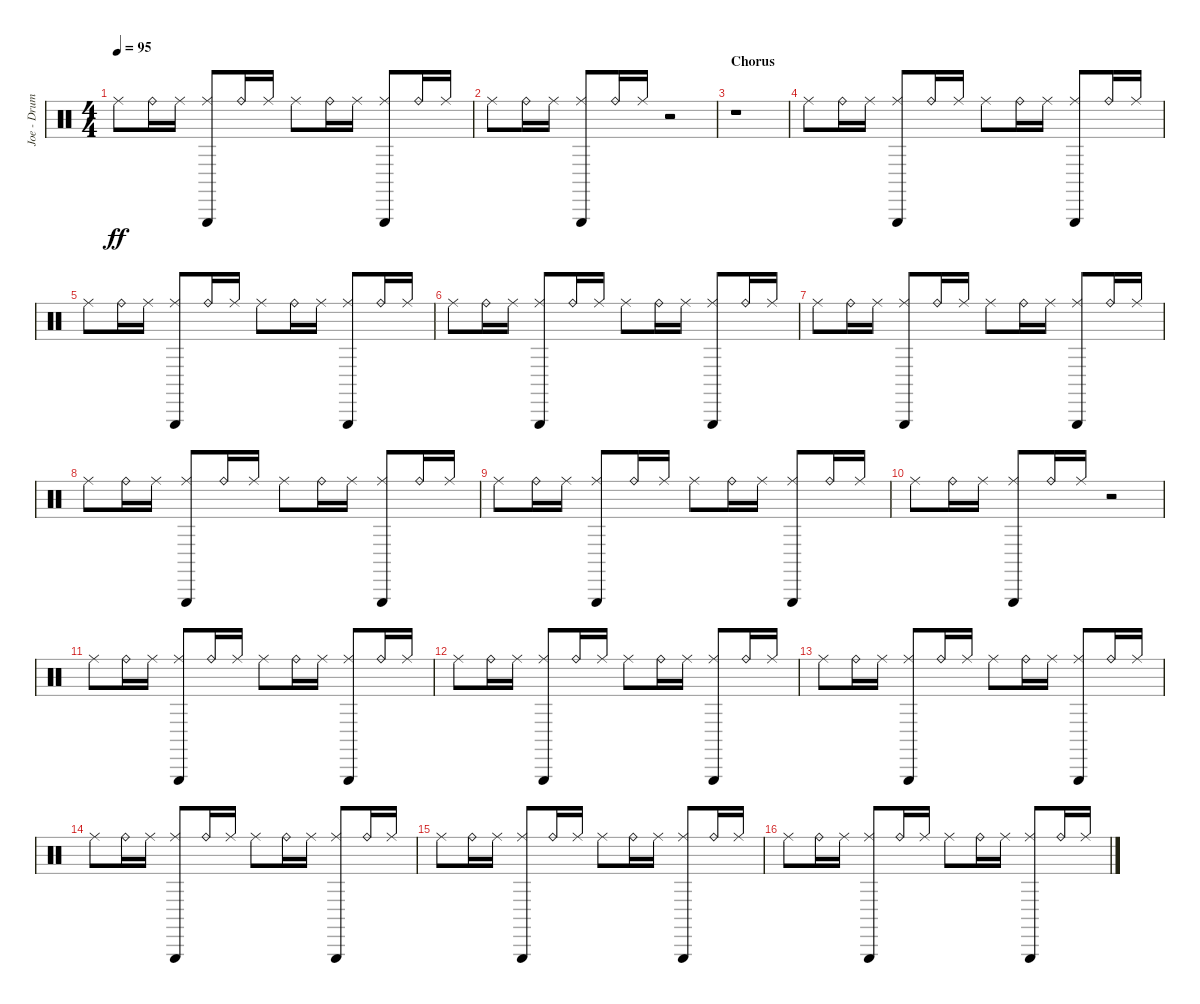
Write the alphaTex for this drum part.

\track ("Joe - Drums samples" "Joe - Drum") {instrument percussion}
\staff {score}
\articulation defaults
\ts (4 4)
\tempo 95
\clef neutral
\ks c "Ride (middle)".8{dy ff} "Ride (bell)".16 "Ride (middle)".16
("Triangle (hit)" "Ride (middle)").8 "Ride (bell)".16 "Ride (middle)".16 "Ride (middle)".8 "Ride (bell)".16 "Ride (middle)".16 ("Triangle (hit)" "Ride (middle)").8 "Ride (bell)".16 "Ride (middle)".16 |
"Ride (middle)".8 "Ride (bell)".16 "Ride (middle)".16 ("Triangle (hit)" "Ride (middle)").8 "Ride (bell)".16 "Ride (middle)".16 r.2 |
\section ("" "Chorus")
r.1 |
"Ride (middle)".8 "Ride (bell)".16 "Ride (middle)".16 ("Triangle (hit)" "Ride (middle)").8 "Ride (bell)".16 "Ride (middle)".16 "Ride (middle)".8 "Ride (bell)".16 "Ride (middle)".16 ("Triangle (hit)" "Ride (middle)").8 "Ride (bell)".16 "Ride (middle)".16 |
"Ride (middle)".8 "Ride (bell)".16 "Ride (middle)".16 ("Triangle (hit)" "Ride (middle)").8 "Ride (bell)".16 "Ride (middle)".16 "Ride (middle)".8 "Ride (bell)".16 "Ride (middle)".16 ("Triangle (hit)" "Ride (middle)").8 "Ride (bell)".16 "Ride (middle)".16 |
"Ride (middle)".8 "Ride (bell)".16 "Ride (middle)".16 ("Triangle (hit)" "Ride (middle)").8 "Ride (bell)".16 "Ride (middle)".16 "Ride (middle)".8 "Ride (bell)".16 "Ride (middle)".16 ("Triangle (hit)" "Ride (middle)").8 "Ride (bell)".16 "Ride (middle)".16 |
"Ride (middle)".8 "Ride (bell)".16 "Ride (middle)".16 ("Triangle (hit)" "Ride (middle)").8 "Ride (bell)".16 "Ride (middle)".16 "Ride (middle)".8 "Ride (bell)".16 "Ride (middle)".16 ("Triangle (hit)" "Ride (middle)").8 "Ride (bell)".16 "Ride (middle)".16 |
"Ride (middle)".8 "Ride (bell)".16 "Ride (middle)".16 ("Triangle (hit)" "Ride (middle)").8 "Ride (bell)".16 "Ride (middle)".16 "Ride (middle)".8 "Ride (bell)".16 "Ride (middle)".16 ("Triangle (hit)" "Ride (middle)").8 "Ride (bell)".16 "Ride (middle)".16 |
"Ride (middle)".8 "Ride (bell)".16 "Ride (middle)".16 ("Triangle (hit)" "Ride (middle)").8 "Ride (bell)".16 "Ride (middle)".16 "Ride (middle)".8 "Ride (bell)".16 "Ride (middle)".16 ("Triangle (hit)" "Ride (middle)").8 "Ride (bell)".16 "Ride (middle)".16 |
"Ride (middle)".8 "Ride (bell)".16 "Ride (middle)".16 ("Triangle (hit)" "Ride (middle)").8 "Ride (bell)".16 "Ride (middle)".16 r.2 |
"Ride (middle)".8 "Ride (bell)".16 "Ride (middle)".16 ("Triangle (hit)" "Ride (middle)").8 "Ride (bell)".16 "Ride (middle)".16 "Ride (middle)".8 "Ride (bell)".16 "Ride (middle)".16 ("Triangle (hit)" "Ride (middle)").8 "Ride (bell)".16 "Ride (middle)".16 |
"Ride (middle)".8 "Ride (bell)".16 "Ride (middle)".16 ("Triangle (hit)" "Ride (middle)").8 "Ride (bell)".16 "Ride (middle)".16 "Ride (middle)".8 "Ride (bell)".16 "Ride (middle)".16 ("Triangle (hit)" "Ride (middle)").8 "Ride (bell)".16 "Ride (middle)".16 |
"Ride (middle)".8 "Ride (bell)".16 "Ride (middle)".16 ("Triangle (hit)" "Ride (middle)").8 "Ride (bell)".16 "Ride (middle)".16 "Ride (middle)".8 "Ride (bell)".16 "Ride (middle)".16 ("Triangle (hit)" "Ride (middle)").8 "Ride (bell)".16 "Ride (middle)".16 |
"Ride (middle)".8 "Ride (bell)".16 "Ride (middle)".16 ("Triangle (hit)" "Ride (middle)").8 "Ride (bell)".16 "Ride (middle)".16 "Ride (middle)".8 "Ride (bell)".16 "Ride (middle)".16 ("Triangle (hit)" "Ride (middle)").8 "Ride (bell)".16 "Ride (middle)".16 |
"Ride (middle)".8 "Ride (bell)".16 "Ride (middle)".16 ("Triangle (hit)" "Ride (middle)").8 "Ride (bell)".16 "Ride (middle)".16 "Ride (middle)".8 "Ride (bell)".16 "Ride (middle)".16 ("Triangle (hit)" "Ride (middle)").8 "Ride (bell)".16 "Ride (middle)".16 |
"Ride (middle)".8 "Ride (bell)".16 "Ride (middle)".16 ("Triangle (hit)" "Ride (middle)").8 "Ride (bell)".16 "Ride (middle)".16 "Ride (middle)".8 "Ride (bell)".16 "Ride (middle)".16 ("Triangle (hit)" "Ride (middle)").8 "Ride (bell)".16 "Ride (middle)".16
